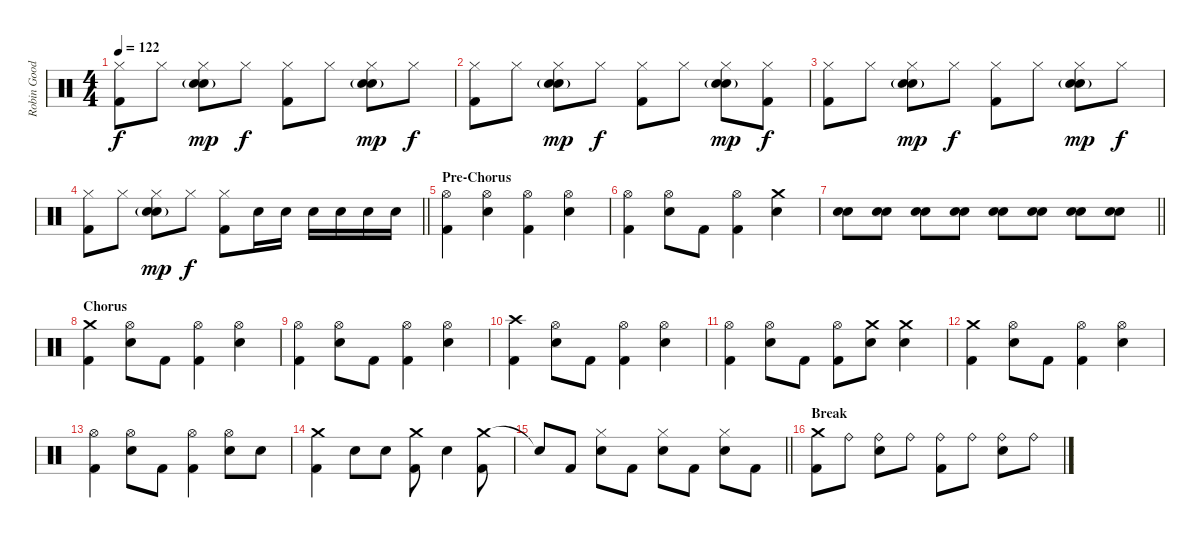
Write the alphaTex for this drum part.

\track ("Robin Goodridge: Drums" "Robin Good") {instrument percussion}
\staff {score}
\articulation defaults
\ts (4 4)
\tempo 122
\clef neutral
\ks c
("Hi-Hat (closed)" "Kick (hit) 2").8{dy f} "Hi-Hat (closed)".8 ("Hi-Hat (closed)" "Electric Snare (hit)" "Hand Clap (hit)"{g}).8{dy mp} "Hi-Hat (closed)".8{dy f} ("Hi-Hat (closed)" "Kick (hit) 2").8 "Hi-Hat (closed)".8 ("Hi-Hat (closed)" "Electric Snare (hit)" "Hand Clap (hit)"{g}).8{dy mp} "Hi-Hat (closed)".8{dy f} |
("Hi-Hat (closed)" "Kick (hit) 2").8 "Hi-Hat (closed)".8 ("Hi-Hat (closed)" "Electric Snare (hit)" "Hand Clap (hit)"{g}).8{dy mp} "Hi-Hat (closed)".8{dy f} ("Hi-Hat (closed)" "Kick (hit) 2").8 "Hi-Hat (closed)".8 ("Hi-Hat (closed)" "Electric Snare (hit)" "Hand Clap (hit)"{g}).8{dy mp} ("Hi-Hat (closed)" "Kick (hit) 2").8{dy f} |
("Hi-Hat (closed)" "Kick (hit) 2").8 "Hi-Hat (closed)".8 ("Hi-Hat (closed)" "Electric Snare (hit)" "Hand Clap (hit)"{g}).8{dy mp} "Hi-Hat (closed)".8{dy f} ("Hi-Hat (closed)" "Kick (hit) 2").8 "Hi-Hat (closed)".8 ("Hi-Hat (closed)" "Electric Snare (hit)" "Hand Clap (hit)"{g}).8{dy mp} "Hi-Hat (closed)".8{dy f} |
\barLineRight lightlight
("Hi-Hat (closed)" "Kick (hit) 2").8 "Hi-Hat (closed)".8 ("Hi-Hat (closed)" "Electric Snare (hit)" "Hand Clap (hit)"{g}).8{dy mp} "Hi-Hat (closed)".8{dy f} ("Hi-Hat (closed)" "Kick (hit) 2").8 "Electric Snare (hit)".16 "Electric Snare (hit)".16 "Electric Snare (hit)".16 "Electric Snare (hit)".16 "Electric Snare (hit)".16 "Electric Snare (hit)".16 |
\section ("" "Pre-Chorus")
("Hi-Hat (open)" "Kick (hit) 2").4 ("Hi-Hat (open)" "Electric Snare (hit)").4 ("Hi-Hat (open)" "Kick (hit) 2").4 ("Hi-Hat (open)" "Electric Snare (hit)").4 |
("Hi-Hat (open)" "Kick (hit) 2").4 ("Hi-Hat (open)" "Electric Snare (hit)").8 "Kick (hit) 2".8 ("Hi-Hat (open)" "Kick (hit) 2").4 ("Crash medium (hit)" "Electric Snare (hit)").4 |
\barLineRight lightlight
("Electric Snare (hit)" "Electric Snare (hit)").8 ("Electric Snare (hit)" "Electric Snare (hit)").8 ("Electric Snare (hit)" "Electric Snare (hit)").8 ("Electric Snare (hit)" "Electric Snare (hit)").8 ("Electric Snare (hit)" "Electric Snare (hit)").8 ("Electric Snare (hit)" "Electric Snare (hit)").8 ("Electric Snare (hit)" "Electric Snare (hit)").8 ("Electric Snare (hit)" "Electric Snare (hit)").8 |
\section ("" "Chorus")
("Crash medium (hit)" "Kick (hit) 2").4 ("Hi-Hat (open)" "Electric Snare (hit)").8 "Kick (hit) 2".8 ("Hi-Hat (open)" "Kick (hit) 2").4 ("Hi-Hat (open)" "Electric Snare (hit)").4 |
("Hi-Hat (open)" "Kick (hit) 2").4 ("Hi-Hat (open)" "Electric Snare (hit)").8 "Kick (hit) 2".8 ("Hi-Hat (open)" "Kick (hit) 2").4 ("Hi-Hat (open)" "Electric Snare (hit)").4 |
("Crash high (hit)" "Kick (hit) 2").4 ("Hi-Hat (open)" "Electric Snare (hit)").8 "Kick (hit) 2".8 ("Hi-Hat (open)" "Kick (hit) 2").4 ("Hi-Hat (open)" "Electric Snare (hit)").4 |
("Hi-Hat (open)" "Kick (hit) 2").4 ("Hi-Hat (open)" "Electric Snare (hit)").8 "Kick (hit) 2".8 ("Hi-Hat (open)" "Kick (hit) 2").8 ("Crash medium (hit)" "Electric Snare (hit)").8 ("Crash medium (hit)" "Electric Snare (hit)").4 |
("Crash medium (hit)" "Kick (hit) 2").4 ("Hi-Hat (open)" "Electric Snare (hit)").8 "Kick (hit) 2".8 ("Hi-Hat (open)" "Kick (hit) 2").4 ("Hi-Hat (open)" "Electric Snare (hit)").4 |
("Hi-Hat (open)" "Kick (hit) 2").4 ("Hi-Hat (open)" "Electric Snare (hit)").8 "Kick (hit) 2".8 ("Hi-Hat (open)" "Kick (hit) 2").4 ("Hi-Hat (open)" "Electric Snare (hit)").8 "Electric Snare (hit)".8 |
("Crash medium (hit)" "Kick (hit) 2").4 "Electric Snare (hit)".8 "Electric Snare (hit)".8 ("Crash medium (hit)" "Kick (hit) 2").8 "Electric Snare (hit)".4 ("Crash medium (hit)" "Kick (hit) 2").8 |
\barLineRight lightlight "Snare (hit)"{t}.8 "Kick (hit) 2".8
("Hi-Hat (closed)" "Electric Snare (hit)").8 "Kick (hit) 2".8 ("Hi-Hat (closed)" "Electric Snare (hit)").8 "Kick (hit) 2".8 ("Hi-Hat (closed)" "Electric Snare (hit)").8 "Kick (hit) 2".8 |
\section ("" "Break")
("Crash medium (hit)" "Kick (hit) 2").8 "Ride (bell)".8 ("Ride (bell)" "Electric Snare (hit)").8 "Ride (bell)".8 ("Ride (bell)" "Kick (hit) 2").8 "Ride (bell)".8 ("Ride (bell)" "Electric Snare (hit)").8 "Ride (bell)".8
